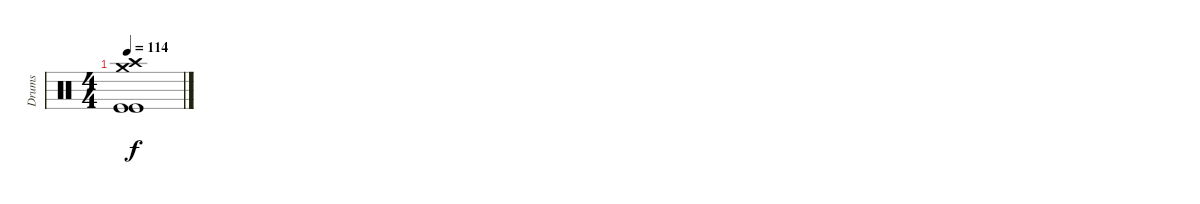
\track ("Drums" "Drums") {instrument percussion}
\staff {score}
\articulation defaults
\ts (4 4)
\tempo 114
\clef neutral
\ks c
("Crash high (hit)" "Crash medium (hit)" "Kick (hit)" "Kick (hit)").1{dy f}
